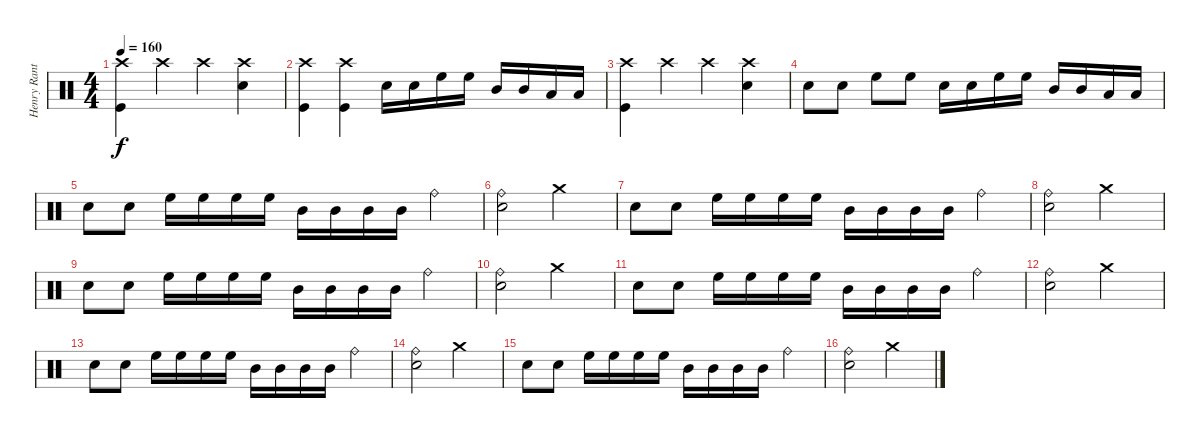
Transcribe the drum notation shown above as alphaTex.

\track ("Henry Ranta" "Henry Rant") {instrument percussion}
\staff {score}
\articulation defaults
\ts (4 4)
\tempo 160
\clef neutral
\ks c
("Crash high (hit)" "Kick (hit)").4{dy f} "Crash high (hit)".4 "Crash high (hit)".4 ("Crash high (hit)" "Snare (hit) 2").4 |
("Crash high (hit)" "Kick (hit)").4 ("Crash high (hit)" "Kick (hit)").4 "Snare (hit) 2".16 "Snare (hit) 2".16 "High Floor Tom (hit)".16 "High Floor Tom (hit)".16 "Mid Tom (hit)".16 "Mid Tom (hit)".16 "Low Tom (hit)".16 "Low Tom (hit)".16 |
("Crash high (hit)" "Kick (hit)").4 "Crash high (hit)".4 "Crash high (hit)".4 ("Crash high (hit)" "Snare (hit) 2").4 |
"Snare (hit) 2".8 "Snare (hit) 2".8 "High Floor Tom (hit)".8 "High Floor Tom (hit)".8 "Snare (hit) 2".16 "Snare (hit) 2".16 "High Floor Tom (hit)".16 "High Floor Tom (hit)".16 "Mid Tom (hit)".16 "Mid Tom (hit)".16 "Low Tom (hit)".16 "Low Tom (hit)".16 |
"Snare (hit) 2".8 "Snare (hit) 2".8 "High Floor Tom (hit)".16 "High Floor Tom (hit)".16 "High Floor Tom (hit)".16 "High Floor Tom (hit)".16 "Mid Tom (hit)".16 "Mid Tom (hit)".16 "Mid Tom (hit)".16 "Mid Tom (hit)".16 "Ride (bell)".4 |
("Ride (bell)" "Snare (hit) 2").2 "Crash medium (hit)".2 |
"Snare (hit) 2".8 "Snare (hit) 2".8 "High Floor Tom (hit)".16 "High Floor Tom (hit)".16 "High Floor Tom (hit)".16 "High Floor Tom (hit)".16 "Mid Tom (hit)".16 "Mid Tom (hit)".16 "Mid Tom (hit)".16 "Mid Tom (hit)".16 "Ride (bell)".4 |
("Ride (bell)" "Snare (hit) 2").2 "Crash medium (hit)".2 |
"Snare (hit) 2".8 "Snare (hit) 2".8 "High Floor Tom (hit)".16 "High Floor Tom (hit)".16 "High Floor Tom (hit)".16 "High Floor Tom (hit)".16 "Mid Tom (hit)".16 "Mid Tom (hit)".16 "Mid Tom (hit)".16 "Mid Tom (hit)".16 "Ride (bell)".4 |
("Ride (bell)" "Snare (hit) 2").2 "Crash medium (hit)".2 |
"Snare (hit) 2".8 "Snare (hit) 2".8 "High Floor Tom (hit)".16 "High Floor Tom (hit)".16 "High Floor Tom (hit)".16 "High Floor Tom (hit)".16 "Mid Tom (hit)".16 "Mid Tom (hit)".16 "Mid Tom (hit)".16 "Mid Tom (hit)".16 "Ride (bell)".4 |
("Ride (bell)" "Snare (hit) 2").2 "Crash medium (hit)".2 |
"Snare (hit) 2".8 "Snare (hit) 2".8 "High Floor Tom (hit)".16 "High Floor Tom (hit)".16 "High Floor Tom (hit)".16 "High Floor Tom (hit)".16 "Mid Tom (hit)".16 "Mid Tom (hit)".16 "Mid Tom (hit)".16 "Mid Tom (hit)".16 "Ride (bell)".4 |
("Ride (bell)" "Snare (hit) 2").2 "Crash medium (hit)".2 |
"Snare (hit) 2".8 "Snare (hit) 2".8 "High Floor Tom (hit)".16 "High Floor Tom (hit)".16 "High Floor Tom (hit)".16 "High Floor Tom (hit)".16 "Mid Tom (hit)".16 "Mid Tom (hit)".16 "Mid Tom (hit)".16 "Mid Tom (hit)".16 "Ride (bell)".4 |
("Ride (bell)" "Snare (hit) 2").2 "Crash medium (hit)".2
